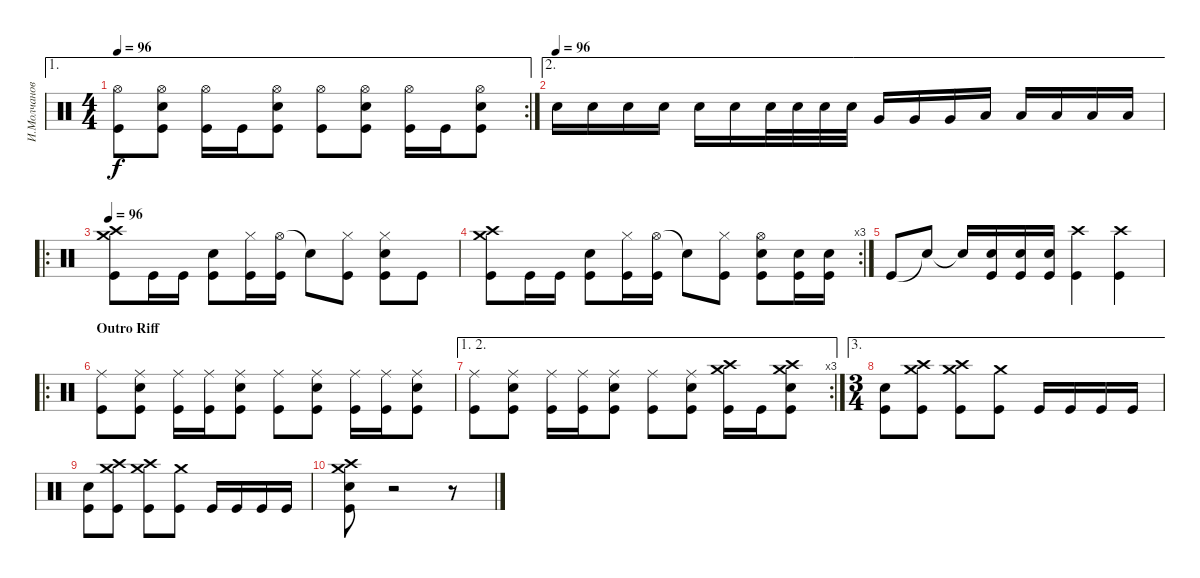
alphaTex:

\track ("И.Молчанов" "И.Молчанов") {instrument percussion}
\staff {score}
\articulation defaults
\ae 1
\rc 2
\ts (4 4)
\tempo 96
\clef neutral
\ks c
("Hi-Hat (open)" "Kick (hit)").8{dy f} ("Hi-Hat (open)" "Snare (hit) 2" "Kick (hit)").8 ("Hi-Hat (open)" "Kick (hit)").16 "Kick (hit)".16 ("Hi-Hat (open)" "Snare (hit) 2" "Kick (hit)").8 ("Hi-Hat (open)" "Kick (hit)").8 ("Hi-Hat (open)" "Snare (hit) 2" "Kick (hit)").8 ("Hi-Hat (open)" "Kick (hit)").16 "Kick (hit)".16 ("Hi-Hat (open)" "Snare (hit) 2" "Kick (hit)").8 |
\ae 2
\tempo (96)
"Snare (hit) 2".16 "Snare (hit) 2".16 "Snare (hit) 2".16 "Snare (hit) 2".16 "Snare (hit) 2".16 "Snare (hit) 2".16 "Snare (hit) 2".32 "Snare (hit) 2".32 "Snare (hit) 2".32 "Snare (hit) 2".32 "Very Low Tom (hit)".16 "Very Low Tom (hit)".16 "Very Low Tom (hit)".16 "Low Floor Tom (hit)".16 "Low Floor Tom (hit)".16 "Low Floor Tom (hit)".16 "Low Floor Tom (hit)".16 "Low Floor Tom (hit)".16 |
\ro
\tempo 96
("Crash medium (hit)" "Crash high (hit)" "Kick (hit)").8 "Kick (hit)".16 "Kick (hit)".16 ("Snare (hit) 2" "Kick (hit)").8 ("Hi-Hat (closed)" "Kick (hit)").16 ("Hi-Hat (open)" "Kick (hit)").16 "Snare (hit)"{t}.8 ("Hi-Hat (closed)" "Kick (hit)").8 ("Hi-Hat (closed)" "Snare (hit) 2" "Kick (hit)").8 "Kick (hit)".8 |
\rc 3
("Crash medium (hit)" "Crash high (hit)" "Kick (hit)").8 "Kick (hit)".16 "Kick (hit)".16 ("Snare (hit) 2" "Kick (hit)").8 ("Hi-Hat (closed)" "Kick (hit)").16 ("Hi-Hat (open)" "Kick (hit)").16 "Snare (hit)"{t}.8 ("Hi-Hat (closed)" "Kick (hit)").8 ("Hi-Hat (open)" "Snare (hit) 2" "Kick (hit)").8 ("Snare (hit) 2" "Kick (hit)").16 ("Snare (hit) 2" "Kick (hit)").16 |
"Kick (hit)".8 "Snare (hit)"{t}.8 "Snare (hit)"{t}.16 ("Snare (hit) 2" "Kick (hit)").16 ("Snare (hit) 2" "Kick (hit)").16 ("Snare (hit) 2" "Kick (hit)").16 ("Crash high (hit)" "Kick (hit)").4 ("Crash high (hit)" "Kick (hit)").4 |
\ro
\section ("" "Outro Riff")
("Ride (middle)" "Kick (hit)").8 ("Ride (middle)" "Snare (hit) 2" "Kick (hit)").8 ("Ride (middle)" "Kick (hit)").16 ("Ride (middle)" "Kick (hit)").16 ("Ride (middle)" "Snare (hit) 2" "Kick (hit)").8 ("Ride (middle)" "Kick (hit)").8 ("Ride (middle)" "Snare (hit) 2" "Kick (hit)").8 ("Ride (middle)" "Kick (hit)").16 ("Ride (middle)" "Kick (hit)").16 ("Ride (middle)" "Snare (hit) 2" "Kick (hit)").8 |
\ae (1 2)
\rc 3
("Ride (middle)" "Kick (hit)").8 ("Ride (middle)" "Snare (hit) 2" "Kick (hit)").8 ("Ride (middle)" "Kick (hit)").16 ("Ride (middle)" "Kick (hit)").16 ("Ride (middle)" "Snare (hit) 2" "Kick (hit)").8 ("Ride (middle)" "Kick (hit)").8 ("Ride (middle)" "Snare (hit) 2" "Kick (hit)").8 ("Crash high (hit)" "Crash medium (hit)" "Kick (hit)").16 "Kick (hit)".16 ("Crash high (hit)" "Crash medium (hit)" "Snare (hit) 2" "Kick (hit)").8 |
\ae 3
\ts (3 4)
("Snare (hit) 2" "Kick (hit)").8 ("Crash medium (hit)" "Crash high (hit)" "Kick (hit)").8 ("Crash medium (hit)" "Crash high (hit)" "Kick (hit)").8 ("Crash medium (hit)" "Kick (hit)").8 "Kick (hit)".16 "Kick (hit)".16 "Kick (hit)".16 "Kick (hit)".16 |
("Snare (hit) 2" "Kick (hit)").8 ("Crash medium (hit)" "Crash high (hit)" "Kick (hit)").8 ("Crash medium (hit)" "Crash high (hit)" "Kick (hit)").8 ("Crash medium (hit)" "Kick (hit)").8 "Kick (hit)".16 "Kick (hit)".16 "Kick (hit)".16 "Kick (hit)".16 |
("Crash medium (hit)" "Crash high (hit)" "Snare (hit) 2" "Kick (hit)").8 r.2 r.8
